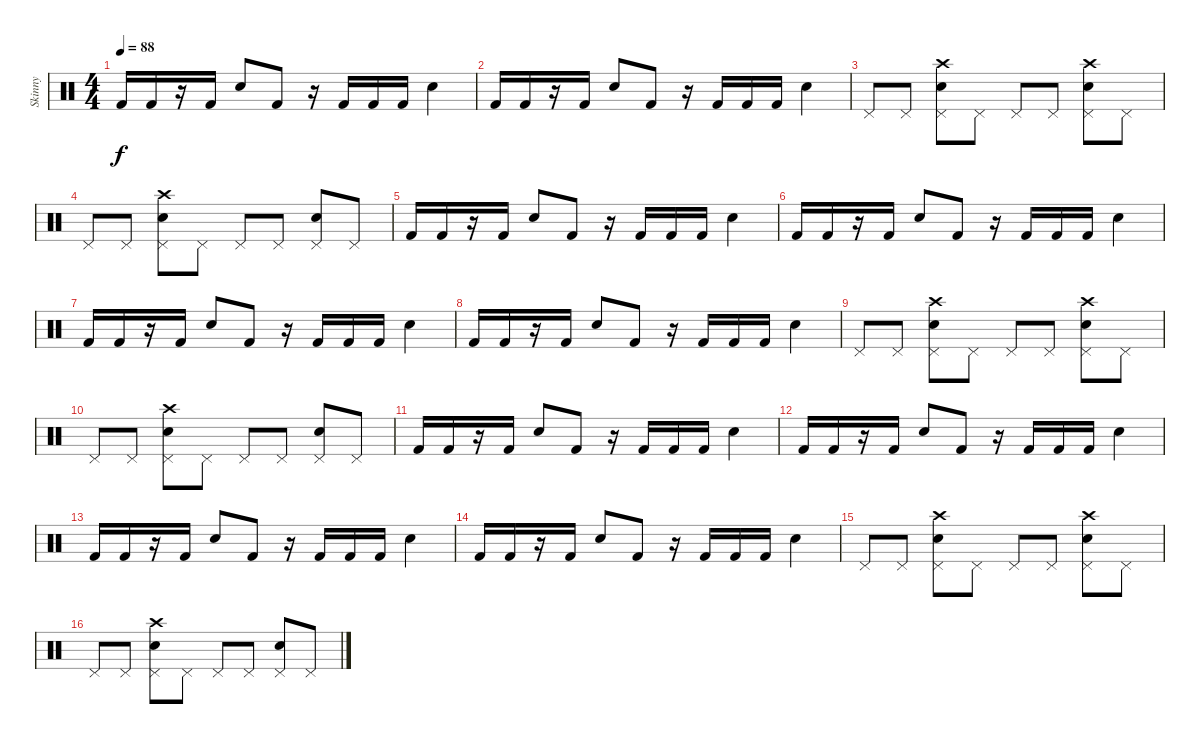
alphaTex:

\track ("Skinny" "Skinny") {instrument percussion}
\staff {score}
\articulation defaults
\ts (4 4)
\tempo 88
\clef neutral
\ks c "Kick (hit) 2".16{dy f} "Kick (hit) 2".16
r.16 "Kick (hit) 2".16 "Snare (hit) 2".8 "Kick (hit) 2".8 r.16 "Kick (hit) 2".16 "Kick (hit) 2".16 "Kick (hit) 2".16 "Snare (hit) 2".4 |
"Kick (hit) 2".16 "Kick (hit) 2".16 r.16 "Kick (hit) 2".16 "Snare (hit) 2".8 "Kick (hit) 2".8 r.16 "Kick (hit) 2".16 "Kick (hit) 2".16 "Kick (hit) 2".16 "Snare (hit) 2".4 |
"Pedal Hi-Hat (hit)".8 "Pedal Hi-Hat (hit)".8 ("Pedal Hi-Hat (hit)" "Snare (hit) 2" "Crash high (hit)").8 "Pedal Hi-Hat (hit)".8 "Pedal Hi-Hat (hit)".8 "Pedal Hi-Hat (hit)".8 ("Pedal Hi-Hat (hit)" "Snare (hit) 2" "Crash high (hit)").8 "Pedal Hi-Hat (hit)".8 |
"Pedal Hi-Hat (hit)".8 "Pedal Hi-Hat (hit)".8 ("Pedal Hi-Hat (hit)" "Snare (hit) 2" "Crash high (hit)").8 "Pedal Hi-Hat (hit)".8 "Pedal Hi-Hat (hit)".8 "Pedal Hi-Hat (hit)".8 ("Pedal Hi-Hat (hit)" "Snare (hit) 2").8 "Pedal Hi-Hat (hit)".8 |
"Kick (hit) 2".16 "Kick (hit) 2".16 r.16 "Kick (hit) 2".16 "Snare (hit) 2".8 "Kick (hit) 2".8 r.16 "Kick (hit) 2".16 "Kick (hit) 2".16 "Kick (hit) 2".16 "Snare (hit) 2".4 |
"Kick (hit) 2".16 "Kick (hit) 2".16 r.16 "Kick (hit) 2".16 "Snare (hit) 2".8 "Kick (hit) 2".8 r.16 "Kick (hit) 2".16 "Kick (hit) 2".16 "Kick (hit) 2".16 "Snare (hit) 2".4 |
"Kick (hit) 2".16 "Kick (hit) 2".16 r.16 "Kick (hit) 2".16 "Snare (hit) 2".8 "Kick (hit) 2".8 r.16 "Kick (hit) 2".16 "Kick (hit) 2".16 "Kick (hit) 2".16 "Snare (hit) 2".4 |
"Kick (hit) 2".16 "Kick (hit) 2".16 r.16 "Kick (hit) 2".16 "Snare (hit) 2".8 "Kick (hit) 2".8 r.16 "Kick (hit) 2".16 "Kick (hit) 2".16 "Kick (hit) 2".16 "Snare (hit) 2".4 |
"Pedal Hi-Hat (hit)".8 "Pedal Hi-Hat (hit)".8 ("Pedal Hi-Hat (hit)" "Snare (hit) 2" "Crash high (hit)").8 "Pedal Hi-Hat (hit)".8 "Pedal Hi-Hat (hit)".8 "Pedal Hi-Hat (hit)".8 ("Pedal Hi-Hat (hit)" "Snare (hit) 2" "Crash high (hit)").8 "Pedal Hi-Hat (hit)".8 |
"Pedal Hi-Hat (hit)".8 "Pedal Hi-Hat (hit)".8 ("Pedal Hi-Hat (hit)" "Snare (hit) 2" "Crash high (hit)").8 "Pedal Hi-Hat (hit)".8 "Pedal Hi-Hat (hit)".8 "Pedal Hi-Hat (hit)".8 ("Pedal Hi-Hat (hit)" "Snare (hit) 2").8 "Pedal Hi-Hat (hit)".8 |
"Kick (hit) 2".16 "Kick (hit) 2".16 r.16 "Kick (hit) 2".16 "Snare (hit) 2".8 "Kick (hit) 2".8 r.16 "Kick (hit) 2".16 "Kick (hit) 2".16 "Kick (hit) 2".16 "Snare (hit) 2".4 |
"Kick (hit) 2".16 "Kick (hit) 2".16 r.16 "Kick (hit) 2".16 "Snare (hit) 2".8 "Kick (hit) 2".8 r.16 "Kick (hit) 2".16 "Kick (hit) 2".16 "Kick (hit) 2".16 "Snare (hit) 2".4 |
"Kick (hit) 2".16 "Kick (hit) 2".16 r.16 "Kick (hit) 2".16 "Snare (hit) 2".8 "Kick (hit) 2".8 r.16 "Kick (hit) 2".16 "Kick (hit) 2".16 "Kick (hit) 2".16 "Snare (hit) 2".4 |
"Kick (hit) 2".16 "Kick (hit) 2".16 r.16 "Kick (hit) 2".16 "Snare (hit) 2".8 "Kick (hit) 2".8 r.16 "Kick (hit) 2".16 "Kick (hit) 2".16 "Kick (hit) 2".16 "Snare (hit) 2".4 |
"Pedal Hi-Hat (hit)".8 "Pedal Hi-Hat (hit)".8 ("Pedal Hi-Hat (hit)" "Snare (hit) 2" "Crash high (hit)").8 "Pedal Hi-Hat (hit)".8 "Pedal Hi-Hat (hit)".8 "Pedal Hi-Hat (hit)".8 ("Pedal Hi-Hat (hit)" "Snare (hit) 2" "Crash high (hit)").8 "Pedal Hi-Hat (hit)".8 |
"Pedal Hi-Hat (hit)".8 "Pedal Hi-Hat (hit)".8 ("Pedal Hi-Hat (hit)" "Snare (hit) 2" "Crash high (hit)").8 "Pedal Hi-Hat (hit)".8 "Pedal Hi-Hat (hit)".8 "Pedal Hi-Hat (hit)".8 ("Pedal Hi-Hat (hit)" "Snare (hit) 2").8 "Pedal Hi-Hat (hit)".8
